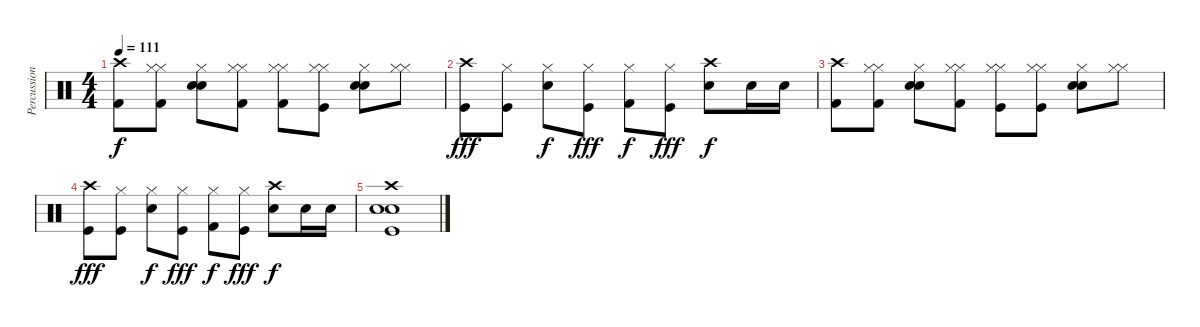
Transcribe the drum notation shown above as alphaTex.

\track ("Percussion" "Percussion") {instrument percussion}
\staff {score}
\articulation defaults
\ts (4 4)
\tempo 111
\clef neutral
\ks c
("Crash high (hit)" "Kick (hit) 2").8{dy f} ("Hi-Hat (closed)" "Hi-Hat (closed)" "Kick (hit) 2").8 ("Hi-Hat (closed)" "Snare (hit) 2" "Electric Snare (hit)").8 ("Hi-Hat (closed)" "Hi-Hat (closed)" "Kick (hit) 2").8 ("Hi-Hat (closed)" "Hi-Hat (closed)" "Kick (hit) 2").8 ("Hi-Hat (closed)" "Hi-Hat (closed)" "Kick (hit)").8 ("Hi-Hat (closed)" "Snare (hit) 2" "Electric Snare (hit)").8 ("Hi-Hat (closed)" "Hi-Hat (closed)").8 |
("Crash high (hit)" "Kick (hit)").8{dy fff} ("Hi-Hat (closed)" "Kick (hit)").8 ("Hi-Hat (closed)" "Snare (hit) 2").8{dy f} ("Hi-Hat (closed)" "Kick (hit)").8{dy fff} ("Hi-Hat (closed)" "Kick (hit) 2").8{dy f} ("Hi-Hat (closed)" "Kick (hit)").8{dy fff} ("Crash high (hit)" "Snare (hit) 2").8{dy f} "Snare (hit) 2".16 "Snare (hit) 2".16 |
("Crash high (hit)" "Kick (hit) 2").8 ("Hi-Hat (closed)" "Hi-Hat (closed)" "Kick (hit) 2").8 ("Hi-Hat (closed)" "Snare (hit) 2" "Electric Snare (hit)").8 ("Hi-Hat (closed)" "Hi-Hat (closed)" "Kick (hit) 2").8 ("Hi-Hat (closed)" "Hi-Hat (closed)" "Kick (hit)").8 ("Hi-Hat (closed)" "Hi-Hat (closed)" "Kick (hit)").8 ("Hi-Hat (closed)" "Snare (hit) 2" "Electric Snare (hit)").8 ("Hi-Hat (closed)" "Hi-Hat (closed)").8 |
("Crash high (hit)" "Kick (hit)").8{dy fff} ("Hi-Hat (closed)" "Kick (hit)").8 ("Hi-Hat (closed)" "Snare (hit) 2").8{dy f} ("Hi-Hat (closed)" "Kick (hit)").8{dy fff} ("Hi-Hat (closed)" "Kick (hit) 2").8{dy f} ("Hi-Hat (closed)" "Kick (hit)").8{dy fff} ("Crash high (hit)" "Snare (hit) 2").8{dy f} "Snare (hit) 2".16 "Snare (hit) 2".16 |
("Crash high (hit)" "Snare (hit) 2" "Electric Snare (hit)" "Kick (hit)").1
